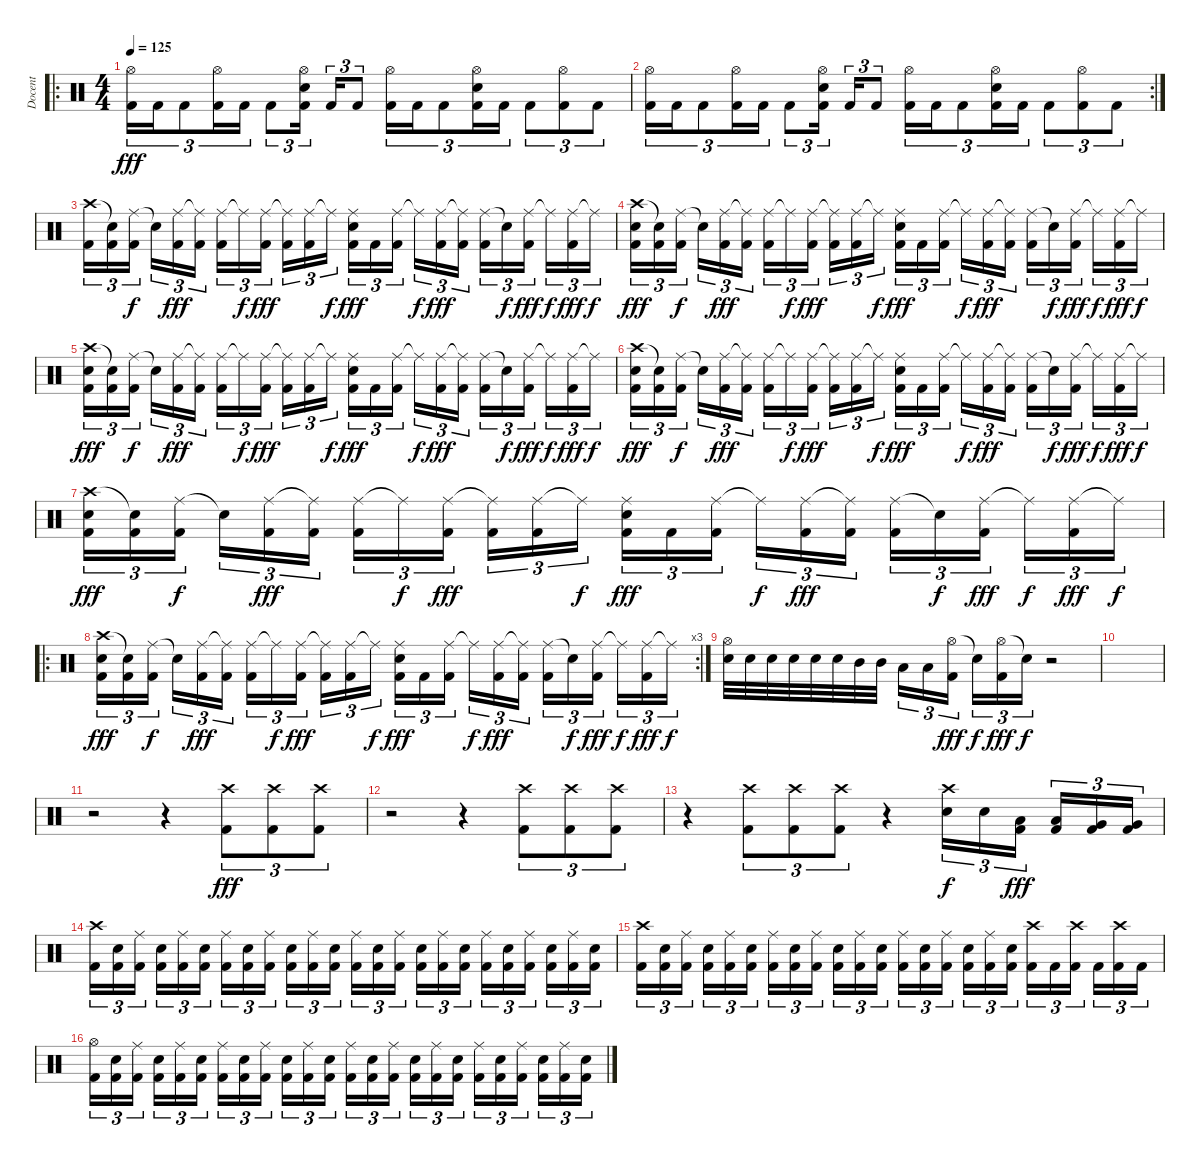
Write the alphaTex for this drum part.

\track ("Docent" "Docent") {instrument percussion}
\staff {score}
\articulation defaults
\ro
\ts (4 4)
\tempo 125
\clef neutral
\ks c
("Hi-Hat (open)" "Kick (hit) 2").16{tu (3 2) dy fff} "Kick (hit) 2".16{tu (3 2)} "Kick (hit) 2".8{tu (3 2)} ("Hi-Hat (open)" "Kick (hit) 2").16{tu (3 2)} "Kick (hit) 2".16{tu (3 2)} "Kick (hit) 2".8{tu (3 2)} ("Hi-Hat (open)" "Electric Snare (hit)" "Kick (hit) 2").16{tu (3 2)} "Kick (hit) 2".16{tu (3 2)} "Kick (hit) 2".8{tu (3 2)} ("Hi-Hat (open)" "Kick (hit) 2").16{tu (3 2)} "Kick (hit) 2".16{tu (3 2)} "Kick (hit) 2".8{tu (3 2)} ("Hi-Hat (open)" "Electric Snare (hit)" "Kick (hit) 2").16{tu (3 2)} "Kick (hit) 2".16{tu (3 2)} "Kick (hit) 2".8{tu (3 2)} ("Hi-Hat (open)" "Kick (hit) 2").8{tu (3 2)} "Kick (hit) 2".8{tu (3 2)} |
\rc 2
("Hi-Hat (open)" "Kick (hit) 2").16{tu (3 2)} "Kick (hit) 2".16{tu (3 2)} "Kick (hit) 2".8{tu (3 2)} ("Hi-Hat (open)" "Kick (hit) 2").16{tu (3 2)} "Kick (hit) 2".16{tu (3 2)} "Kick (hit) 2".8{tu (3 2)} ("Hi-Hat (open)" "Electric Snare (hit)" "Kick (hit) 2").16{tu (3 2)} "Kick (hit) 2".16{tu (3 2)} "Kick (hit) 2".8{tu (3 2)} ("Hi-Hat (open)" "Kick (hit) 2").16{tu (3 2)} "Kick (hit) 2".16{tu (3 2)} "Kick (hit) 2".8{tu (3 2)} ("Hi-Hat (open)" "Electric Snare (hit)" "Kick (hit) 2").16{tu (3 2)} "Kick (hit) 2".16{tu (3 2)} "Kick (hit) 2".8{tu (3 2)} ("Hi-Hat (open)" "Kick (hit) 2").8{tu (3 2)} "Kick (hit) 2".8{tu (3 2)} |
("Crash high (hit)" "Kick (hit) 2").16{tu (3 2)} ("Snare (hit)"{t} "Kick (hit) 2").16{tu (3 2)} ("Ride (middle)" "Kick (hit) 2").16{tu (3 2) dy f} "Snare (hit)"{t}.16{tu (3 2)} ("Ride (middle)" "Kick (hit) 2").16{tu (3 2) dy fff} ("Ride (middle)"{t} "Kick (hit) 2").16{tu (3 2)} ("Ride (middle)" "Kick (hit) 2").16{tu (3 2)} "Ride (middle)"{t}.16{tu (3 2) dy f} ("Ride (middle)" "Kick (hit) 2").16{tu (3 2) dy fff} ("Ride (middle)"{t} "Kick (hit) 2").16{tu (3 2)} ("Ride (middle)" "Kick (hit) 2").16{tu (3 2)} "Ride (middle)"{t}.16{tu (3 2) dy f} ("Ride (middle)" "Electric Snare (hit)" "Kick (hit) 2").16{tu (3 2) dy fff} "Kick (hit) 2".16{tu (3 2)} ("Ride (middle)" "Kick (hit) 2").16{tu (3 2)} "Ride (middle)"{t}.16{tu (3 2) dy f} ("Ride (middle)" "Kick (hit) 2").16{tu (3 2) dy fff} ("Ride (middle)"{t} "Kick (hit) 2").16{tu (3 2)} ("Ride (middle)" "Kick (hit) 2").16{tu (3 2)} "Snare (hit)"{t}.16{tu (3 2) dy f} ("Ride (middle)" "Kick (hit) 2").16{tu (3 2) dy fff} "Ride (middle)"{t}.16{tu (3 2) dy f} ("Ride (middle)" "Kick (hit) 2").16{tu (3 2) dy fff} "Ride (middle)"{t}.16{tu (3 2) dy f} |
("Crash high (hit)" "Electric Snare (hit)" "Kick (hit) 2").16{tu (3 2) dy fff} ("Snare (hit)"{t} "Kick (hit) 2").16{tu (3 2)} ("Ride (middle)" "Kick (hit) 2").16{tu (3 2) dy f} "Snare (hit)"{t}.16{tu (3 2)} ("Ride (middle)" "Kick (hit) 2").16{tu (3 2) dy fff} ("Ride (middle)"{t} "Kick (hit) 2").16{tu (3 2)} ("Ride (middle)" "Kick (hit) 2").16{tu (3 2)} "Ride (middle)"{t}.16{tu (3 2) dy f} ("Ride (middle)" "Kick (hit) 2").16{tu (3 2) dy fff} ("Ride (middle)"{t} "Kick (hit) 2").16{tu (3 2)} ("Ride (middle)" "Kick (hit) 2").16{tu (3 2)} "Ride (middle)"{t}.16{tu (3 2) dy f} ("Ride (middle)" "Electric Snare (hit)" "Kick (hit) 2").16{tu (3 2) dy fff} "Kick (hit) 2".16{tu (3 2)} ("Ride (middle)" "Kick (hit) 2").16{tu (3 2)} "Ride (middle)"{t}.16{tu (3 2) dy f} ("Ride (middle)" "Kick (hit) 2").16{tu (3 2) dy fff} ("Ride (middle)"{t} "Kick (hit) 2").16{tu (3 2)} ("Ride (middle)" "Kick (hit) 2").16{tu (3 2)} "Snare (hit)"{t}.16{tu (3 2) dy f} ("Ride (middle)" "Kick (hit) 2").16{tu (3 2) dy fff} "Ride (middle)"{t}.16{tu (3 2) dy f} ("Ride (middle)" "Kick (hit) 2").16{tu (3 2) dy fff} "Ride (middle)"{t}.16{tu (3 2) dy f} |
("Crash high (hit)" "Electric Snare (hit)" "Kick (hit) 2").16{tu (3 2) dy fff} ("Snare (hit)"{t} "Kick (hit) 2").16{tu (3 2)} ("Ride (middle)" "Kick (hit) 2").16{tu (3 2) dy f} "Snare (hit)"{t}.16{tu (3 2)} ("Ride (middle)" "Kick (hit) 2").16{tu (3 2) dy fff} ("Ride (middle)"{t} "Kick (hit) 2").16{tu (3 2)} ("Ride (middle)" "Kick (hit) 2").16{tu (3 2)} "Ride (middle)"{t}.16{tu (3 2) dy f} ("Ride (middle)" "Kick (hit) 2").16{tu (3 2) dy fff} ("Ride (middle)"{t} "Kick (hit) 2").16{tu (3 2)} ("Ride (middle)" "Kick (hit) 2").16{tu (3 2)} "Ride (middle)"{t}.16{tu (3 2) dy f} ("Ride (middle)" "Electric Snare (hit)" "Kick (hit) 2").16{tu (3 2) dy fff} "Kick (hit) 2".16{tu (3 2)} ("Ride (middle)" "Kick (hit) 2").16{tu (3 2)} "Ride (middle)"{t}.16{tu (3 2) dy f} ("Ride (middle)" "Kick (hit) 2").16{tu (3 2) dy fff} ("Ride (middle)"{t} "Kick (hit) 2").16{tu (3 2)} ("Ride (middle)" "Kick (hit) 2").16{tu (3 2)} "Snare (hit)"{t}.16{tu (3 2) dy f} ("Ride (middle)" "Kick (hit) 2").16{tu (3 2) dy fff} "Ride (middle)"{t}.16{tu (3 2) dy f} ("Ride (middle)" "Kick (hit) 2").16{tu (3 2) dy fff} "Ride (middle)"{t}.16{tu (3 2) dy f} |
("Crash high (hit)" "Electric Snare (hit)" "Kick (hit) 2").16{tu (3 2) dy fff} ("Snare (hit)"{t} "Kick (hit) 2").16{tu (3 2)} ("Ride (middle)" "Kick (hit) 2").16{tu (3 2) dy f} "Snare (hit)"{t}.16{tu (3 2)} ("Ride (middle)" "Kick (hit) 2").16{tu (3 2) dy fff} ("Ride (middle)"{t} "Kick (hit) 2").16{tu (3 2)} ("Ride (middle)" "Kick (hit) 2").16{tu (3 2)} "Ride (middle)"{t}.16{tu (3 2) dy f} ("Ride (middle)" "Kick (hit) 2").16{tu (3 2) dy fff} ("Ride (middle)"{t} "Kick (hit) 2").16{tu (3 2)} ("Ride (middle)" "Kick (hit) 2").16{tu (3 2)} "Ride (middle)"{t}.16{tu (3 2) dy f} ("Ride (middle)" "Electric Snare (hit)" "Kick (hit) 2").16{tu (3 2) dy fff} "Kick (hit) 2".16{tu (3 2)} ("Ride (middle)" "Kick (hit) 2").16{tu (3 2)} "Ride (middle)"{t}.16{tu (3 2) dy f} ("Ride (middle)" "Kick (hit) 2").16{tu (3 2) dy fff} ("Ride (middle)"{t} "Kick (hit) 2").16{tu (3 2)} ("Ride (middle)" "Kick (hit) 2").16{tu (3 2)} "Snare (hit)"{t}.16{tu (3 2) dy f} ("Ride (middle)" "Kick (hit) 2").16{tu (3 2) dy fff} "Ride (middle)"{t}.16{tu (3 2) dy f} ("Ride (middle)" "Kick (hit) 2").16{tu (3 2) dy fff} "Ride (middle)"{t}.16{tu (3 2) dy f} |
("Crash high (hit)" "Electric Snare (hit)" "Kick (hit) 2").16{tu (3 2) dy fff} ("Snare (hit)"{t} "Kick (hit) 2").16{tu (3 2)} ("Ride (middle)" "Kick (hit) 2").16{tu (3 2) dy f} "Snare (hit)"{t}.16{tu (3 2)} ("Ride (middle)" "Kick (hit) 2").16{tu (3 2) dy fff} ("Ride (middle)"{t} "Kick (hit) 2").16{tu (3 2)} ("Ride (middle)" "Kick (hit) 2").16{tu (3 2)} "Ride (middle)"{t}.16{tu (3 2) dy f} ("Ride (middle)" "Kick (hit) 2").16{tu (3 2) dy fff} ("Ride (middle)"{t} "Kick (hit) 2").16{tu (3 2)} ("Ride (middle)" "Kick (hit) 2").16{tu (3 2)} "Ride (middle)"{t}.16{tu (3 2) dy f} ("Ride (middle)" "Electric Snare (hit)" "Kick (hit) 2").16{tu (3 2) dy fff} "Kick (hit) 2".16{tu (3 2)} ("Ride (middle)" "Kick (hit) 2").16{tu (3 2)} "Ride (middle)"{t}.16{tu (3 2) dy f} ("Ride (middle)" "Kick (hit) 2").16{tu (3 2) dy fff} ("Ride (middle)"{t} "Kick (hit) 2").16{tu (3 2)} ("Ride (middle)" "Kick (hit) 2").16{tu (3 2)} "Snare (hit)"{t}.16{tu (3 2) dy f} ("Ride (middle)" "Kick (hit) 2").16{tu (3 2) dy fff} "Ride (middle)"{t}.16{tu (3 2) dy f} ("Ride (middle)" "Kick (hit) 2").16{tu (3 2) dy fff} "Ride (middle)"{t}.16{tu (3 2) dy f} |
\ro
\rc 3
("Crash high (hit)" "Electric Snare (hit)" "Kick (hit) 2").16{tu (3 2) dy fff} ("Snare (hit)"{t} "Kick (hit) 2").16{tu (3 2)} ("Ride (middle)" "Kick (hit) 2").16{tu (3 2) dy f} "Snare (hit)"{t}.16{tu (3 2)} ("Ride (middle)" "Kick (hit) 2").16{tu (3 2) dy fff} ("Ride (middle)"{t} "Kick (hit) 2").16{tu (3 2)} ("Ride (middle)" "Kick (hit) 2").16{tu (3 2)} "Ride (middle)"{t}.16{tu (3 2) dy f} ("Ride (middle)" "Kick (hit) 2").16{tu (3 2) dy fff} ("Ride (middle)"{t} "Kick (hit) 2").16{tu (3 2)} ("Ride (middle)" "Kick (hit) 2").16{tu (3 2)} "Ride (middle)"{t}.16{tu (3 2) dy f} ("Ride (middle)" "Electric Snare (hit)" "Kick (hit) 2").16{tu (3 2) dy fff} "Kick (hit) 2".16{tu (3 2)} ("Ride (middle)" "Kick (hit) 2").16{tu (3 2)} "Ride (middle)"{t}.16{tu (3 2) dy f} ("Ride (middle)" "Kick (hit) 2").16{tu (3 2) dy fff} ("Ride (middle)"{t} "Kick (hit) 2").16{tu (3 2)} ("Ride (middle)" "Kick (hit) 2").16{tu (3 2)} "Snare (hit)"{t}.16{tu (3 2) dy f} ("Ride (middle)" "Kick (hit) 2").16{tu (3 2) dy fff} "Ride (middle)"{t}.16{tu (3 2) dy f} ("Ride (middle)" "Kick (hit) 2").16{tu (3 2) dy fff} "Ride (middle)"{t}.16{tu (3 2) dy f} |
("Hi-Hat (open)" "Electric Snare (hit)").32 "Electric Snare (hit)".32 "Electric Snare (hit)".32 "Electric Snare (hit)".32 "Electric Snare (hit)".32 "Electric Snare (hit)".32 "Mid Tom (hit)".32 "Mid Tom (hit)".32 "Low Tom (hit)".16{tu (3 2)} "Low Tom (hit)".16{tu (3 2)} ("Hi-Hat (open)" "Kick (hit) 2").16{tu (3 2) dy fff} "Snare (hit)"{t}.16{tu (3 2) dy f} ("Hi-Hat (open)" "Kick (hit) 2").16{tu (3 2) dy fff} "Snare (hit)"{t}.16{tu (3 2) dy f} r.2 |
|
r.2 r.4 ("Crash high (hit)" "Kick (hit) 2").8{tu (3 2) dy fff} ("Crash high (hit)" "Kick (hit) 2").8{tu (3 2)} ("Crash high (hit)" "Kick (hit) 2").8{tu (3 2)} |
r.2 r.4 ("Crash high (hit)" "Kick (hit) 2").8{tu (3 2)} ("Crash high (hit)" "Kick (hit) 2").8{tu (3 2)} ("Crash high (hit)" "Kick (hit) 2").8{tu (3 2)} |
r.4 ("Crash high (hit)" "Kick (hit) 2").8{tu (3 2)} ("Crash high (hit)" "Kick (hit) 2").8{tu (3 2)} ("Crash high (hit)" "Kick (hit) 2").8{tu (3 2)} r.4 ("Crash high (hit)" "Electric Snare (hit)").16{tu (3 2) dy f} "Electric Snare (hit)".16{tu (3 2)} ("Low Tom (hit)" "Kick (hit) 2").16{tu (3 2) dy fff} ("Low Tom (hit)" "Kick (hit) 2").16{tu (3 2)} ("Very Low Tom (hit)" "Kick (hit) 2").16{tu (3 2)} ("Very Low Tom (hit)" "Kick (hit) 2").16{tu (3 2)} |
("Crash high (hit)" "Kick (hit) 2").16{tu (3 2)} ("Electric Snare (hit)" "Kick (hit) 2").16{tu (3 2)} ("Ride (middle)" "Kick (hit) 2").16{tu (3 2)} ("Electric Snare (hit)" "Kick (hit) 2").16{tu (3 2)} ("Ride (middle)" "Kick (hit) 2").16{tu (3 2)} ("Electric Snare (hit)" "Kick (hit) 2").16{tu (3 2)} ("Ride (middle)" "Kick (hit) 2").16{tu (3 2)} ("Electric Snare (hit)" "Kick (hit) 2").16{tu (3 2)} ("Ride (middle)" "Kick (hit) 2").16{tu (3 2)} ("Electric Snare (hit)" "Kick (hit) 2").16{tu (3 2)} ("Ride (middle)" "Kick (hit) 2").16{tu (3 2)} ("Electric Snare (hit)" "Kick (hit) 2").16{tu (3 2)} ("Ride (middle)" "Kick (hit) 2").16{tu (3 2)} ("Electric Snare (hit)" "Kick (hit) 2").16{tu (3 2)} ("Ride (middle)" "Kick (hit) 2").16{tu (3 2)} ("Electric Snare (hit)" "Kick (hit) 2").16{tu (3 2)} ("Ride (middle)" "Kick (hit) 2").16{tu (3 2)} ("Electric Snare (hit)" "Kick (hit) 2").16{tu (3 2)} ("Ride (middle)" "Kick (hit) 2").16{tu (3 2)} ("Electric Snare (hit)" "Kick (hit) 2").16{tu (3 2)} ("Ride (middle)" "Kick (hit) 2").16{tu (3 2)} ("Electric Snare (hit)" "Kick (hit) 2").16{tu (3 2)} ("Ride (middle)" "Kick (hit) 2").16{tu (3 2)} ("Electric Snare (hit)" "Kick (hit) 2").16{tu (3 2)} |
("Crash high (hit)" "Kick (hit) 2").16{tu (3 2)} ("Electric Snare (hit)" "Kick (hit) 2").16{tu (3 2)} ("Ride (middle)" "Kick (hit) 2").16{tu (3 2)} ("Electric Snare (hit)" "Kick (hit) 2").16{tu (3 2)} ("Ride (middle)" "Kick (hit) 2").16{tu (3 2)} ("Electric Snare (hit)" "Kick (hit) 2").16{tu (3 2)} ("Ride (middle)" "Kick (hit) 2").16{tu (3 2)} ("Electric Snare (hit)" "Kick (hit) 2").16{tu (3 2)} ("Ride (middle)" "Kick (hit) 2").16{tu (3 2)} ("Electric Snare (hit)" "Kick (hit) 2").16{tu (3 2)} ("Ride (middle)" "Kick (hit) 2").16{tu (3 2)} ("Electric Snare (hit)" "Kick (hit) 2").16{tu (3 2)} ("Ride (middle)" "Kick (hit) 2").16{tu (3 2)} ("Electric Snare (hit)" "Kick (hit) 2").16{tu (3 2)} ("Ride (middle)" "Kick (hit) 2").16{tu (3 2)} ("Electric Snare (hit)" "Kick (hit) 2").16{tu (3 2)} ("Ride (middle)" "Kick (hit) 2").16{tu (3 2)} ("Electric Snare (hit)" "Kick (hit) 2").16{tu (3 2)} ("Crash high (hit)" "Kick (hit) 2").16{tu (3 2)} "Kick (hit) 2".16{tu (3 2)} ("Crash high (hit)" "Kick (hit) 2").16{tu (3 2)} "Kick (hit) 2".16{tu (3 2)} ("Crash high (hit)" "Kick (hit) 2").16{tu (3 2)} "Kick (hit) 2".16{tu (3 2)} |
("Hi-Hat (open)" "Kick (hit) 2").16{tu (3 2)} ("Electric Snare (hit)" "Kick (hit) 2").16{tu (3 2)} ("Ride (middle)" "Kick (hit) 2").16{tu (3 2)} ("Electric Snare (hit)" "Kick (hit) 2").16{tu (3 2)} ("Ride (middle)" "Kick (hit) 2").16{tu (3 2)} ("Electric Snare (hit)" "Kick (hit) 2").16{tu (3 2)} ("Ride (middle)" "Kick (hit) 2").16{tu (3 2)} ("Electric Snare (hit)" "Kick (hit) 2").16{tu (3 2)} ("Ride (middle)" "Kick (hit) 2").16{tu (3 2)} ("Electric Snare (hit)" "Kick (hit) 2").16{tu (3 2)} ("Ride (middle)" "Kick (hit) 2").16{tu (3 2)} ("Electric Snare (hit)" "Kick (hit) 2").16{tu (3 2)} ("Ride (middle)" "Kick (hit) 2").16{tu (3 2)} ("Electric Snare (hit)" "Kick (hit) 2").16{tu (3 2)} ("Ride (middle)" "Kick (hit) 2").16{tu (3 2)} ("Electric Snare (hit)" "Kick (hit) 2").16{tu (3 2)} ("Ride (middle)" "Kick (hit) 2").16{tu (3 2)} ("Electric Snare (hit)" "Kick (hit) 2").16{tu (3 2)} ("Ride (middle)" "Kick (hit) 2").16{tu (3 2)} ("Electric Snare (hit)" "Kick (hit) 2").16{tu (3 2)} ("Ride (middle)" "Kick (hit) 2").16{tu (3 2)} ("Electric Snare (hit)" "Kick (hit) 2").16{tu (3 2)} ("Ride (middle)" "Kick (hit) 2").16{tu (3 2)} ("Electric Snare (hit)" "Kick (hit) 2").16{tu (3 2)}
